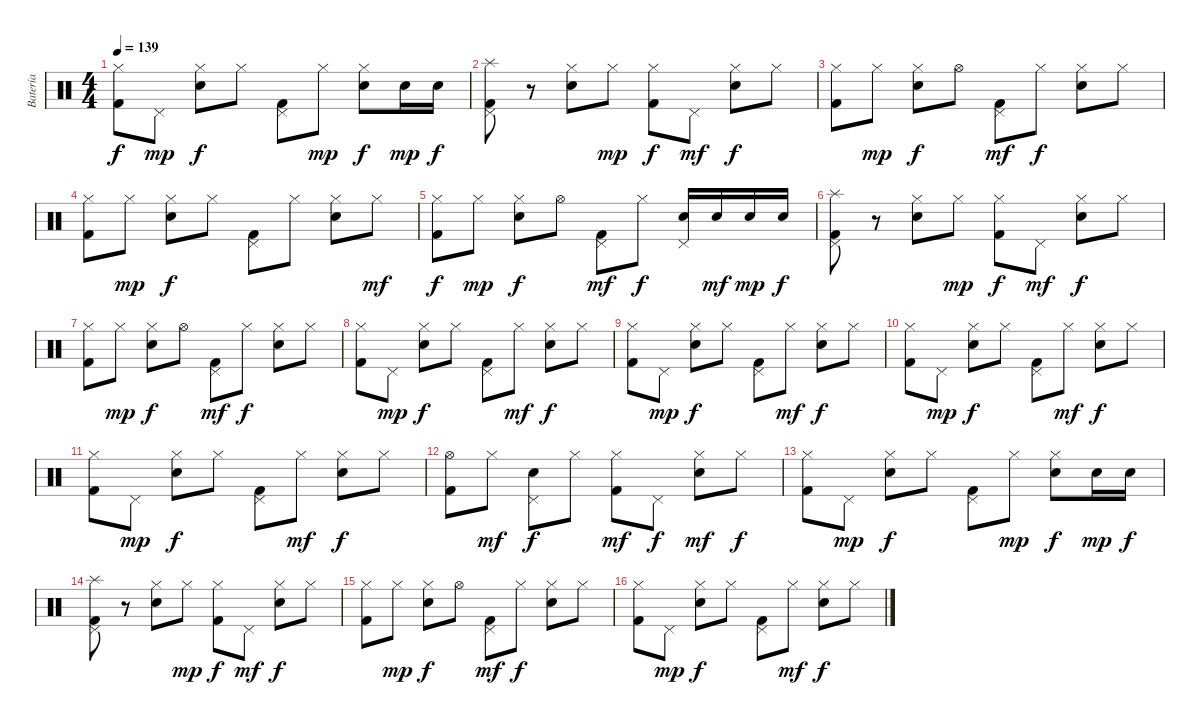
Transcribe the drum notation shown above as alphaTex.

\track ("Batería" "Batería") {instrument percussion}
\staff {score}
\articulation defaults
\ts (4 4)
\tempo 139
\clef neutral
\ks c
("Hi-Hat (closed)" "Kick (hit) 2").8{dy f} "Pedal Hi-Hat (hit)".8{dy mp} ("Hi-Hat (closed)" "Snare (hit) 2").8{dy f} "Hi-Hat (closed)".8 ("Pedal Hi-Hat (hit)" "Kick (hit) 2").8 "Hi-Hat (closed)".8{dy mp} ("Hi-Hat (closed)" "Snare (hit) 2").8{dy f} "Snare (hit) 2".16{dy mp} "Snare (hit) 2".16{dy f} |
("Splash (hit)" "Pedal Hi-Hat (hit)" "Kick (hit) 2").8 r.8 ("Hi-Hat (closed)" "Snare (hit) 2").8 "Hi-Hat (closed)".8{dy mp} ("Hi-Hat (closed)" "Kick (hit) 2").8{dy f} "Pedal Hi-Hat (hit)".8{dy mf} ("Hi-Hat (closed)" "Snare (hit) 2").8{dy f} "Hi-Hat (closed)".8 |
("Hi-Hat (closed)" "Kick (hit) 2").8 "Hi-Hat (closed)".8{dy mp} ("Hi-Hat (closed)" "Snare (hit) 2").8{dy f} "Hi-Hat (open)".8 ("Pedal Hi-Hat (hit)" "Kick (hit) 2").8{dy mf} "Hi-Hat (closed)".8{dy f} ("Hi-Hat (closed)" "Snare (hit) 2").8 "Hi-Hat (closed)".8 |
("Hi-Hat (closed)" "Kick (hit) 2").8 "Hi-Hat (closed)".8{dy mp} ("Hi-Hat (closed)" "Snare (hit) 2").8{dy f} "Hi-Hat (closed)".8 ("Pedal Hi-Hat (hit)" "Kick (hit) 2").8 "Hi-Hat (closed)".8 ("Hi-Hat (closed)" "Snare (hit) 2").8 "Hi-Hat (closed)".8{dy mf} |
("Hi-Hat (closed)" "Kick (hit) 2").8{dy f} "Hi-Hat (closed)".8{dy mp} ("Hi-Hat (closed)" "Snare (hit) 2").8{dy f} "Hi-Hat (open)".8 ("Pedal Hi-Hat (hit)" "Kick (hit) 2").8{dy mf} "Hi-Hat (closed)".8{dy f} ("Pedal Hi-Hat (hit)" "Snare (hit) 2").16 "Snare (hit) 2".16{dy mf} "Snare (hit) 2".16{dy mp} "Snare (hit) 2".16{dy f} |
("Splash (hit)" "Pedal Hi-Hat (hit)" "Kick (hit) 2").8 r.8 ("Hi-Hat (closed)" "Snare (hit) 2").8 "Hi-Hat (closed)".8{dy mp} ("Hi-Hat (closed)" "Kick (hit) 2").8{dy f} "Pedal Hi-Hat (hit)".8{dy mf} ("Hi-Hat (closed)" "Snare (hit) 2").8{dy f} "Hi-Hat (closed)".8 |
("Hi-Hat (closed)" "Kick (hit) 2").8 "Hi-Hat (closed)".8{dy mp} ("Hi-Hat (closed)" "Snare (hit) 2").8{dy f} "Hi-Hat (open)".8 ("Pedal Hi-Hat (hit)" "Kick (hit) 2").8{dy mf} "Hi-Hat (closed)".8{dy f} ("Hi-Hat (closed)" "Snare (hit) 2").8 "Hi-Hat (closed)".8 |
("Hi-Hat (closed)" "Kick (hit) 2").8 "Pedal Hi-Hat (hit)".8{dy mp} ("Hi-Hat (closed)" "Snare (hit) 2").8{dy f} "Hi-Hat (closed)".8 ("Pedal Hi-Hat (hit)" "Kick (hit) 2").8 "Hi-Hat (closed)".8{dy mf} ("Hi-Hat (closed)" "Snare (hit) 2").8{dy f} "Hi-Hat (closed)".8 |
("Hi-Hat (closed)" "Kick (hit) 2").8 "Pedal Hi-Hat (hit)".8{dy mp} ("Hi-Hat (closed)" "Snare (hit) 2").8{dy f} "Hi-Hat (closed)".8 ("Pedal Hi-Hat (hit)" "Kick (hit) 2").8 "Hi-Hat (closed)".8{dy mf} ("Hi-Hat (closed)" "Snare (hit) 2").8{dy f} "Hi-Hat (closed)".8 |
("Hi-Hat (closed)" "Kick (hit) 2").8 "Pedal Hi-Hat (hit)".8{dy mp} ("Hi-Hat (closed)" "Snare (hit) 2").8{dy f} "Hi-Hat (closed)".8 ("Pedal Hi-Hat (hit)" "Kick (hit) 2").8 "Hi-Hat (closed)".8{dy mf} ("Hi-Hat (closed)" "Snare (hit) 2").8{dy f} "Hi-Hat (closed)".8 |
("Hi-Hat (closed)" "Kick (hit) 2").8 "Pedal Hi-Hat (hit)".8{dy mp} ("Hi-Hat (closed)" "Snare (hit) 2").8{dy f} "Hi-Hat (closed)".8 ("Pedal Hi-Hat (hit)" "Kick (hit) 2").8 "Hi-Hat (closed)".8{dy mf} ("Hi-Hat (closed)" "Snare (hit) 2").8{dy f} "Hi-Hat (closed)".8 |
("Hi-Hat (open)" "Kick (hit) 2").8 "Hi-Hat (closed)".8{dy mf} ("Pedal Hi-Hat (hit)" "Snare (hit) 2").8{dy f} "Hi-Hat (closed)".8 ("Hi-Hat (closed)" "Kick (hit) 2").8{dy mf} "Pedal Hi-Hat (hit)".8{dy f} ("Hi-Hat (closed)" "Snare (hit) 2").8{dy mf} "Hi-Hat (closed)".8{dy f} |
("Hi-Hat (closed)" "Kick (hit) 2").8 "Pedal Hi-Hat (hit)".8{dy mp} ("Hi-Hat (closed)" "Snare (hit) 2").8{dy f} "Hi-Hat (closed)".8 ("Pedal Hi-Hat (hit)" "Kick (hit) 2").8 "Hi-Hat (closed)".8{dy mp} ("Hi-Hat (closed)" "Snare (hit) 2").8{dy f} "Snare (hit) 2".16{dy mp} "Snare (hit) 2".16{dy f} |
("Splash (hit)" "Pedal Hi-Hat (hit)" "Kick (hit) 2").8 r.8 ("Hi-Hat (closed)" "Snare (hit) 2").8 "Hi-Hat (closed)".8{dy mp} ("Hi-Hat (closed)" "Kick (hit) 2").8{dy f} "Pedal Hi-Hat (hit)".8{dy mf} ("Hi-Hat (closed)" "Snare (hit) 2").8{dy f} "Hi-Hat (closed)".8 |
("Hi-Hat (closed)" "Kick (hit) 2").8 "Hi-Hat (closed)".8{dy mp} ("Hi-Hat (closed)" "Snare (hit) 2").8{dy f} "Hi-Hat (open)".8 ("Pedal Hi-Hat (hit)" "Kick (hit) 2").8{dy mf} "Hi-Hat (closed)".8{dy f} ("Hi-Hat (closed)" "Snare (hit) 2").8 "Hi-Hat (closed)".8 |
("Hi-Hat (closed)" "Kick (hit) 2").8 "Pedal Hi-Hat (hit)".8{dy mp} ("Hi-Hat (closed)" "Snare (hit) 2").8{dy f} "Hi-Hat (closed)".8 ("Pedal Hi-Hat (hit)" "Kick (hit) 2").8 "Hi-Hat (closed)".8{dy mf} ("Hi-Hat (closed)" "Snare (hit) 2").8{dy f} "Hi-Hat (closed)".8
